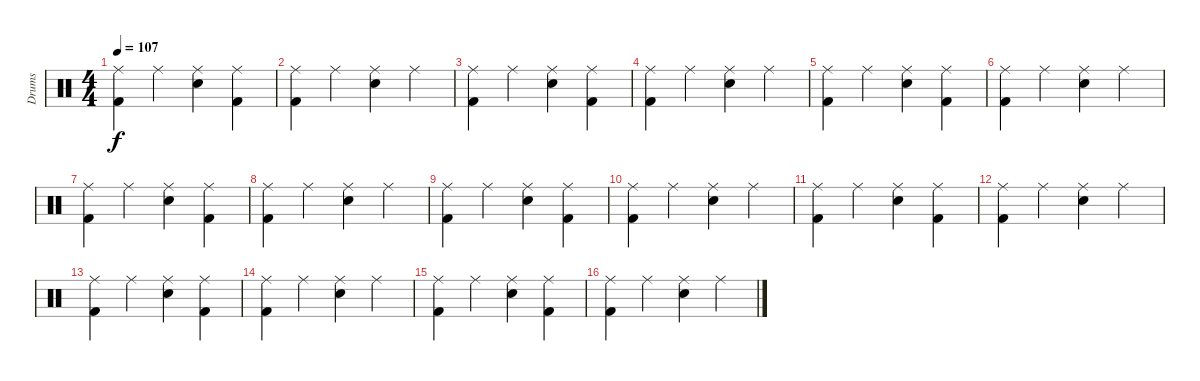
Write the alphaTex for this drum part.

\track ("Drums" "Drums") {instrument percussion}
\staff {score}
\articulation defaults
\ts (4 4)
\tempo 107
\clef neutral
\ks c
("Ride (middle)" "Kick (hit) 2").4{dy f} "Ride (middle)".4 ("Ride (middle)" "Electric Snare (hit)").4 ("Ride (middle)" "Kick (hit) 2").4 |
("Ride (middle)" "Kick (hit) 2").4 "Ride (middle)".4 ("Ride (middle)" "Electric Snare (hit)").4 "Ride (middle)".4 |
("Ride (middle)" "Kick (hit) 2").4 "Ride (middle)".4 ("Ride (middle)" "Electric Snare (hit)").4 ("Ride (middle)" "Kick (hit) 2").4 |
("Ride (middle)" "Kick (hit) 2").4 "Ride (middle)".4 ("Ride (middle)" "Electric Snare (hit)").4 "Ride (middle)".4 |
("Ride (middle)" "Kick (hit) 2").4 "Ride (middle)".4 ("Ride (middle)" "Electric Snare (hit)").4 ("Ride (middle)" "Kick (hit) 2").4 |
("Ride (middle)" "Kick (hit) 2").4 "Ride (middle)".4 ("Ride (middle)" "Electric Snare (hit)").4 "Ride (middle)".4 |
("Ride (middle)" "Kick (hit) 2").4 "Ride (middle)".4 ("Ride (middle)" "Electric Snare (hit)").4 ("Ride (middle)" "Kick (hit) 2").4 |
("Ride (middle)" "Kick (hit) 2").4 "Ride (middle)".4 ("Ride (middle)" "Electric Snare (hit)").4 "Ride (middle)".4 |
("Ride (middle)" "Kick (hit) 2").4 "Ride (middle)".4 ("Ride (middle)" "Electric Snare (hit)").4 ("Ride (middle)" "Kick (hit) 2").4 |
("Ride (middle)" "Kick (hit) 2").4 "Ride (middle)".4 ("Ride (middle)" "Electric Snare (hit)").4 "Ride (middle)".4 |
("Ride (middle)" "Kick (hit) 2").4 "Ride (middle)".4 ("Ride (middle)" "Electric Snare (hit)").4 ("Ride (middle)" "Kick (hit) 2").4 |
("Ride (middle)" "Kick (hit) 2").4 "Ride (middle)".4 ("Ride (middle)" "Electric Snare (hit)").4 "Ride (middle)".4 |
("Ride (middle)" "Kick (hit) 2").4 "Ride (middle)".4 ("Ride (middle)" "Electric Snare (hit)").4 ("Ride (middle)" "Kick (hit) 2").4 |
("Ride (middle)" "Kick (hit) 2").4 "Ride (middle)".4 ("Ride (middle)" "Electric Snare (hit)").4 "Ride (middle)".4 |
("Ride (middle)" "Kick (hit) 2").4 "Ride (middle)".4 ("Ride (middle)" "Electric Snare (hit)").4 ("Ride (middle)" "Kick (hit) 2").4 |
("Ride (middle)" "Kick (hit) 2").4 "Ride (middle)".4 ("Ride (middle)" "Electric Snare (hit)").4 "Ride (middle)".4
